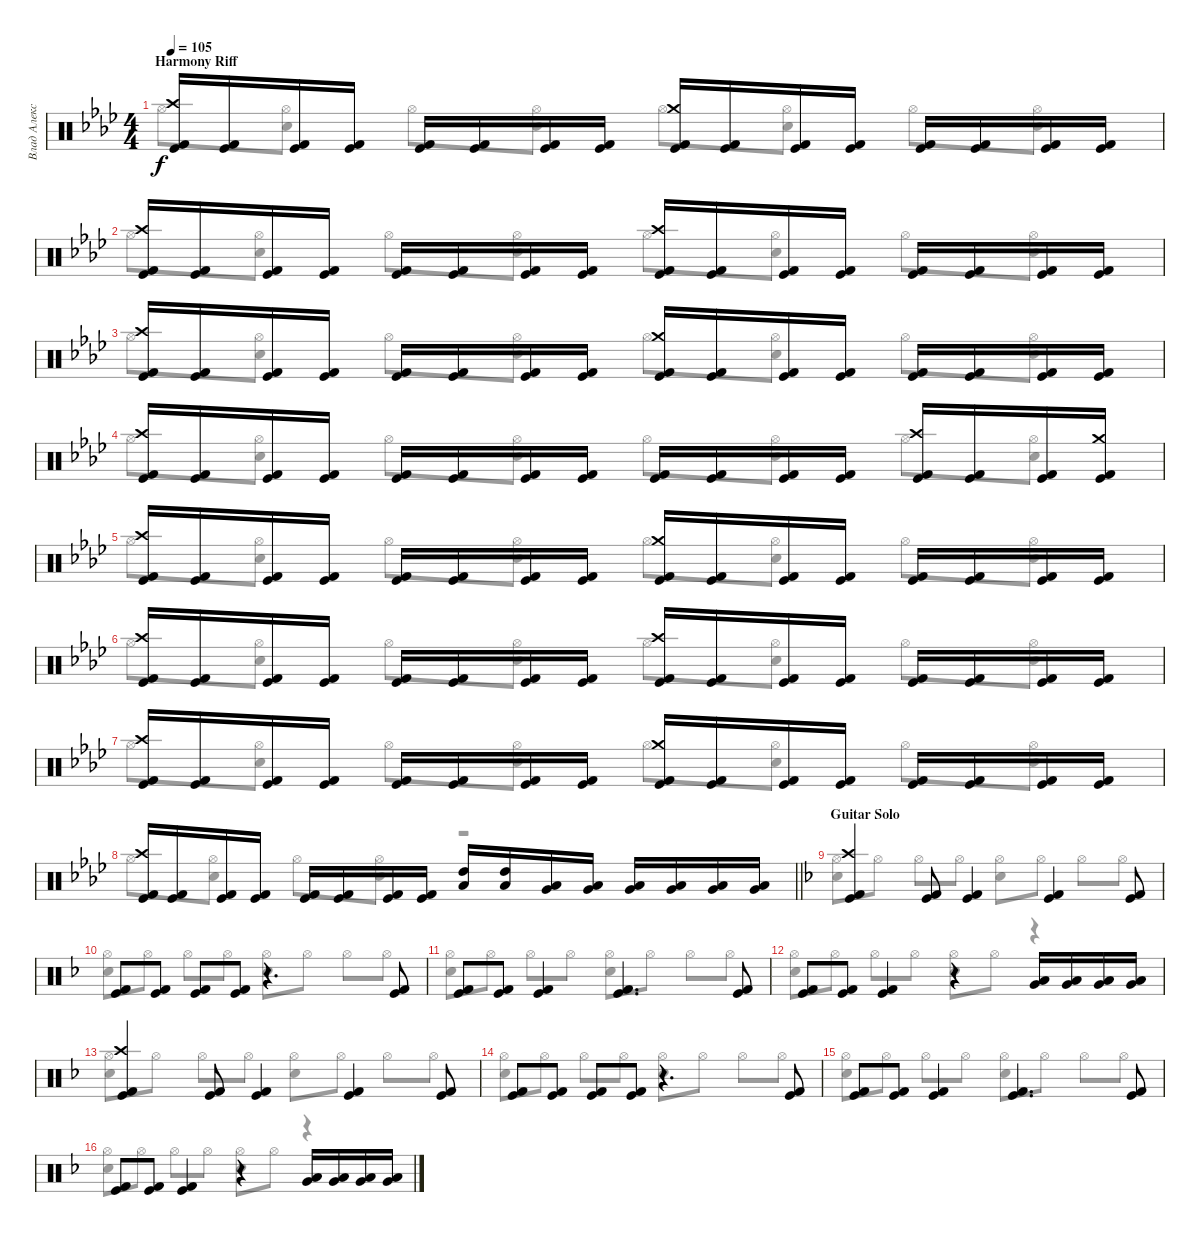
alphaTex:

\track ("Влад Алексеенко" "Влад Алекс") {instrument percussion}
\staff {score}
\articulation defaults
\voice
\ts (4 4)
\section ("" "Harmony Riff")
\tempo 105
\clef neutral
\ks ab
("Kick (hit) 2" "Kick (hit)" "Crash high (hit)").16{dy f} ("Kick (hit) 2" "Kick (hit)").16 ("Kick (hit) 2" "Kick (hit)").16 ("Kick (hit) 2" "Kick (hit)").16 ("Kick (hit) 2" "Kick (hit)").16 ("Kick (hit) 2" "Kick (hit)").16 ("Kick (hit) 2" "Kick (hit)").16 ("Kick (hit) 2" "Kick (hit)").16 ("Kick (hit) 2" "Kick (hit)" "Crash medium (hit)").16 ("Kick (hit) 2" "Kick (hit)").16 ("Kick (hit) 2" "Kick (hit)").16 ("Kick (hit) 2" "Kick (hit)").16 ("Kick (hit) 2" "Kick (hit)").16 ("Kick (hit) 2" "Kick (hit)").16 ("Kick (hit) 2" "Kick (hit)").16 ("Kick (hit) 2" "Kick (hit)").16 |
("Kick (hit) 2" "Kick (hit)" "Crash high (hit)").16 ("Kick (hit) 2" "Kick (hit)").16 ("Kick (hit) 2" "Kick (hit)").16 ("Kick (hit) 2" "Kick (hit)").16 ("Kick (hit) 2" "Kick (hit)").16 ("Kick (hit) 2" "Kick (hit)").16 ("Kick (hit) 2" "Kick (hit)").16 ("Kick (hit) 2" "Kick (hit)").16 ("Kick (hit) 2" "Kick (hit)" "Crash high (hit)").16 ("Kick (hit) 2" "Kick (hit)").16 ("Kick (hit) 2" "Kick (hit)").16 ("Kick (hit) 2" "Kick (hit)").16 ("Kick (hit) 2" "Kick (hit)").16 ("Kick (hit) 2" "Kick (hit)").16 ("Kick (hit) 2" "Kick (hit)").16 ("Kick (hit) 2" "Kick (hit)").16 |
("Kick (hit) 2" "Kick (hit)" "Crash high (hit)").16 ("Kick (hit) 2" "Kick (hit)").16 ("Kick (hit) 2" "Kick (hit)").16 ("Kick (hit) 2" "Kick (hit)").16 ("Kick (hit) 2" "Kick (hit)").16 ("Kick (hit) 2" "Kick (hit)").16 ("Kick (hit) 2" "Kick (hit)").16 ("Kick (hit) 2" "Kick (hit)").16 ("Kick (hit) 2" "Kick (hit)" "Crash medium (hit)").16 ("Kick (hit) 2" "Kick (hit)").16 ("Kick (hit) 2" "Kick (hit)").16 ("Kick (hit) 2" "Kick (hit)").16 ("Kick (hit) 2" "Kick (hit)").16 ("Kick (hit) 2" "Kick (hit)").16 ("Kick (hit) 2" "Kick (hit)").16 ("Kick (hit) 2" "Kick (hit)").16 |
("Kick (hit) 2" "Kick (hit)" "Crash high (hit)").16 ("Kick (hit) 2" "Kick (hit)").16 ("Kick (hit) 2" "Kick (hit)").16 ("Kick (hit) 2" "Kick (hit)").16 ("Kick (hit) 2" "Kick (hit)").16 ("Kick (hit) 2" "Kick (hit)").16 ("Kick (hit) 2" "Kick (hit)").16 ("Kick (hit) 2" "Kick (hit)").16 ("Kick (hit) 2" "Kick (hit)").16 ("Kick (hit) 2" "Kick (hit)").16 ("Kick (hit) 2" "Kick (hit)").16 ("Kick (hit) 2" "Kick (hit)").16 ("Kick (hit) 2" "Kick (hit)" "Crash high (hit)").16 ("Kick (hit) 2" "Kick (hit)").16 ("Kick (hit) 2" "Kick (hit)").16 ("Kick (hit) 2" "Kick (hit)" "Crash medium (hit)").16 |
("Kick (hit) 2" "Kick (hit)" "Crash high (hit)").16 ("Kick (hit) 2" "Kick (hit)").16 ("Kick (hit) 2" "Kick (hit)").16 ("Kick (hit) 2" "Kick (hit)").16 ("Kick (hit) 2" "Kick (hit)").16 ("Kick (hit) 2" "Kick (hit)").16 ("Kick (hit) 2" "Kick (hit)").16 ("Kick (hit) 2" "Kick (hit)").16 ("Kick (hit) 2" "Kick (hit)" "Crash medium (hit)").16 ("Kick (hit) 2" "Kick (hit)").16 ("Kick (hit) 2" "Kick (hit)").16 ("Kick (hit) 2" "Kick (hit)").16 ("Kick (hit) 2" "Kick (hit)").16 ("Kick (hit) 2" "Kick (hit)").16 ("Kick (hit) 2" "Kick (hit)").16 ("Kick (hit) 2" "Kick (hit)").16 |
("Kick (hit) 2" "Kick (hit)" "Crash high (hit)").16 ("Kick (hit) 2" "Kick (hit)").16 ("Kick (hit) 2" "Kick (hit)").16 ("Kick (hit) 2" "Kick (hit)").16 ("Kick (hit) 2" "Kick (hit)").16 ("Kick (hit) 2" "Kick (hit)").16 ("Kick (hit) 2" "Kick (hit)").16 ("Kick (hit) 2" "Kick (hit)").16 ("Kick (hit) 2" "Kick (hit)" "Crash high (hit)").16 ("Kick (hit) 2" "Kick (hit)").16 ("Kick (hit) 2" "Kick (hit)").16 ("Kick (hit) 2" "Kick (hit)").16 ("Kick (hit) 2" "Kick (hit)").16 ("Kick (hit) 2" "Kick (hit)").16 ("Kick (hit) 2" "Kick (hit)").16 ("Kick (hit) 2" "Kick (hit)").16 |
("Kick (hit) 2" "Kick (hit)" "Crash high (hit)").16 ("Kick (hit) 2" "Kick (hit)").16 ("Kick (hit) 2" "Kick (hit)").16 ("Kick (hit) 2" "Kick (hit)").16 ("Kick (hit) 2" "Kick (hit)").16 ("Kick (hit) 2" "Kick (hit)").16 ("Kick (hit) 2" "Kick (hit)").16 ("Kick (hit) 2" "Kick (hit)").16 ("Kick (hit) 2" "Kick (hit)" "Crash medium (hit)").16 ("Kick (hit) 2" "Kick (hit)").16 ("Kick (hit) 2" "Kick (hit)").16 ("Kick (hit) 2" "Kick (hit)").16 ("Kick (hit) 2" "Kick (hit)").16 ("Kick (hit) 2" "Kick (hit)").16 ("Kick (hit) 2" "Kick (hit)").16 ("Kick (hit) 2" "Kick (hit)").16 |
\barLineRight lightlight
("Kick (hit) 2" "Kick (hit)" "Crash high (hit)").16 ("Kick (hit) 2" "Kick (hit)").16 ("Kick (hit) 2" "Kick (hit)").16 ("Kick (hit) 2" "Kick (hit)").16 ("Kick (hit) 2" "Kick (hit)").16 ("Kick (hit) 2" "Kick (hit)").16 ("Kick (hit) 2" "Kick (hit)").16 ("Kick (hit) 2" "Kick (hit)").16 ("Low Tom (hit)" "High Tom (hit)").16 ("Low Tom (hit)" "High Tom (hit)").16 ("Very Low Tom (hit)" "Low Tom (hit)").16 ("Very Low Tom (hit)" "Low Tom (hit)").16 ("Low Floor Tom (hit)" "Very Low Tom (hit)").16 ("Very Low Tom (hit)" "Low Tom (hit)").16 ("Low Floor Tom (hit)" "Very Low Tom (hit)").16 ("Low Floor Tom (hit)" "Very Low Tom (hit)").16 |
\section ("" "Guitar Solo")
\ks f
("Kick (hit) 2" "Kick (hit)" "Crash high (hit)").4 ("Kick (hit) 2" "Kick (hit)").8 ("Kick (hit) 2" "Kick (hit)").4 ("Kick (hit) 2" "Kick (hit)").4 ("Kick (hit) 2" "Kick (hit)").8 |
("Kick (hit) 2" "Kick (hit)").8 ("Kick (hit) 2" "Kick (hit)").8 ("Kick (hit) 2" "Kick (hit)").8 ("Kick (hit) 2" "Kick (hit)").8 r.4{d} ("Kick (hit) 2" "Kick (hit)").8 |
("Kick (hit) 2" "Kick (hit)").8 ("Kick (hit) 2" "Kick (hit)").8 ("Kick (hit) 2" "Kick (hit)").4 ("Kick (hit) 2" "Kick (hit)").4{d} ("Kick (hit) 2" "Kick (hit)").8 |
("Kick (hit) 2" "Kick (hit)").8 ("Kick (hit) 2" "Kick (hit)").8 ("Kick (hit) 2" "Kick (hit)").4 r.4 ("Low Tom (hit)" "Very Low Tom (hit)").16 ("Very Low Tom (hit)" "Low Floor Tom (hit)").16 ("Very Low Tom (hit)" "Low Floor Tom (hit)").16 ("Low Floor Tom (hit)" "Very Low Tom (hit)").16 |
("Kick (hit) 2" "Kick (hit)" "Crash high (hit)").4 ("Kick (hit) 2" "Kick (hit)").8 ("Kick (hit) 2" "Kick (hit)").4 ("Kick (hit) 2" "Kick (hit)").4 ("Kick (hit) 2" "Kick (hit)").8 |
("Kick (hit) 2" "Kick (hit)").8 ("Kick (hit) 2" "Kick (hit)").8 ("Kick (hit) 2" "Kick (hit)").8 ("Kick (hit) 2" "Kick (hit)").8 r.4{d} ("Kick (hit) 2" "Kick (hit)").8 |
("Kick (hit) 2" "Kick (hit)").8 ("Kick (hit) 2" "Kick (hit)").8 ("Kick (hit) 2" "Kick (hit)").4 ("Kick (hit) 2" "Kick (hit)").4{d} ("Kick (hit) 2" "Kick (hit)").8 |
("Kick (hit) 2" "Kick (hit)").8 ("Kick (hit) 2" "Kick (hit)").8 ("Kick (hit) 2" "Kick (hit)").4 r.4 ("Low Tom (hit)" "Very Low Tom (hit)").16 ("Very Low Tom (hit)" "Low Floor Tom (hit)").16 ("Very Low Tom (hit)" "Low Floor Tom (hit)").16 ("Low Floor Tom (hit)" "Very Low Tom (hit)").16
\voice
\clef neutral
\ottava regular
\simile none
\ks ab "Hi-Hat (open)".8{dy f}
("Hi-Hat (open)" "Snare (hit) 2").8 "Hi-Hat (open)".8 ("Hi-Hat (open)" "Snare (hit) 2").8 "Hi-Hat (open)".8 ("Hi-Hat (open)" "Snare (hit) 2").8 "Hi-Hat (open)".8 ("Hi-Hat (open)" "Snare (hit) 2").8 |
"Hi-Hat (open)".8 ("Hi-Hat (open)" "Snare (hit) 2").8 "Hi-Hat (open)".8 ("Hi-Hat (open)" "Snare (hit) 2").8 "Hi-Hat (open)".8 ("Hi-Hat (open)" "Snare (hit) 2").8 "Hi-Hat (open)".8 ("Hi-Hat (open)" "Snare (hit) 2").8 |
"Hi-Hat (open)".8 ("Hi-Hat (open)" "Snare (hit) 2").8 "Hi-Hat (open)".8 ("Hi-Hat (open)" "Snare (hit) 2").8 "Hi-Hat (open)".8 ("Hi-Hat (open)" "Snare (hit) 2").8 "Hi-Hat (open)".8 ("Hi-Hat (open)" "Snare (hit) 2").8 |
"Hi-Hat (open)".8 ("Hi-Hat (open)" "Snare (hit) 2").8 "Hi-Hat (open)".8 ("Hi-Hat (open)" "Snare (hit) 2").8 "Hi-Hat (open)".8 ("Hi-Hat (open)" "Snare (hit) 2").8 "Hi-Hat (open)".8 ("Hi-Hat (open)" "Snare (hit) 2").8 |
"Hi-Hat (open)".8 ("Hi-Hat (open)" "Snare (hit) 2").8 "Hi-Hat (open)".8 ("Hi-Hat (open)" "Snare (hit) 2").8 "Hi-Hat (open)".8 ("Hi-Hat (open)" "Snare (hit) 2").8 "Hi-Hat (open)".8 ("Hi-Hat (open)" "Snare (hit) 2").8 |
"Hi-Hat (open)".8 ("Hi-Hat (open)" "Snare (hit) 2").8 "Hi-Hat (open)".8 ("Hi-Hat (open)" "Snare (hit) 2").8 "Hi-Hat (open)".8 ("Hi-Hat (open)" "Snare (hit) 2").8 "Hi-Hat (open)".8 ("Hi-Hat (open)" "Snare (hit) 2").8 |
"Hi-Hat (open)".8 ("Hi-Hat (open)" "Snare (hit) 2").8 "Hi-Hat (open)".8 ("Hi-Hat (open)" "Snare (hit) 2").8 "Hi-Hat (open)".8 ("Hi-Hat (open)" "Snare (hit) 2").8 "Hi-Hat (open)".8 ("Hi-Hat (open)" "Snare (hit) 2").8 |
\barLineRight lightlight "Hi-Hat (open)".8
("Hi-Hat (open)" "Snare (hit) 2").8 "Hi-Hat (open)".8 ("Hi-Hat (open)" "Snare (hit) 2").8 r.2 |
\ks f
("Snare (hit) 2" "Hi-Hat (open)").8 "Hi-Hat (open)".8 "Hi-Hat (open)".8 "Hi-Hat (open)".8 ("Snare (hit) 2" "Hi-Hat (open)").8 "Hi-Hat (open)".8 "Hi-Hat (open)".8 "Hi-Hat (open)".8 |
("Snare (hit) 2" "Hi-Hat (open)").8 "Hi-Hat (open)".8 "Hi-Hat (open)".8 "Hi-Hat (open)".8 ("Snare (hit) 2" "Hi-Hat (open)").8 "Hi-Hat (open)".8 "Hi-Hat (open)".8 "Hi-Hat (open)".8 |
("Snare (hit) 2" "Hi-Hat (open)").8 "Hi-Hat (open)".8 "Hi-Hat (open)".8 "Hi-Hat (open)".8 ("Snare (hit) 2" "Hi-Hat (open)").8 "Hi-Hat (open)".8 "Hi-Hat (open)".8 "Hi-Hat (open)".8 |
("Snare (hit) 2" "Hi-Hat (open)").8 "Hi-Hat (open)".8 "Hi-Hat (open)".8 "Hi-Hat (open)".8 ("Snare (hit) 2" "Hi-Hat (open)").8 "Hi-Hat (open)".8 r.4 |
("Snare (hit) 2" "Hi-Hat (open)").8 "Hi-Hat (open)".8 "Hi-Hat (open)".8 "Hi-Hat (open)".8 ("Snare (hit) 2" "Hi-Hat (open)").8 "Hi-Hat (open)".8 "Hi-Hat (open)".8 "Hi-Hat (open)".8 |
("Snare (hit) 2" "Hi-Hat (open)").8 "Hi-Hat (open)".8 "Hi-Hat (open)".8 "Hi-Hat (open)".8 ("Snare (hit) 2" "Hi-Hat (open)").8 "Hi-Hat (open)".8 "Hi-Hat (open)".8 "Hi-Hat (open)".8 |
("Snare (hit) 2" "Hi-Hat (open)").8 "Hi-Hat (open)".8 "Hi-Hat (open)".8 "Hi-Hat (open)".8 ("Snare (hit) 2" "Hi-Hat (open)").8 "Hi-Hat (open)".8 "Hi-Hat (open)".8 "Hi-Hat (open)".8 |
("Snare (hit) 2" "Hi-Hat (open)").8 "Hi-Hat (open)".8 "Hi-Hat (open)".8 "Hi-Hat (open)".8 ("Snare (hit) 2" "Hi-Hat (open)").8 "Hi-Hat (open)".8 r.4
